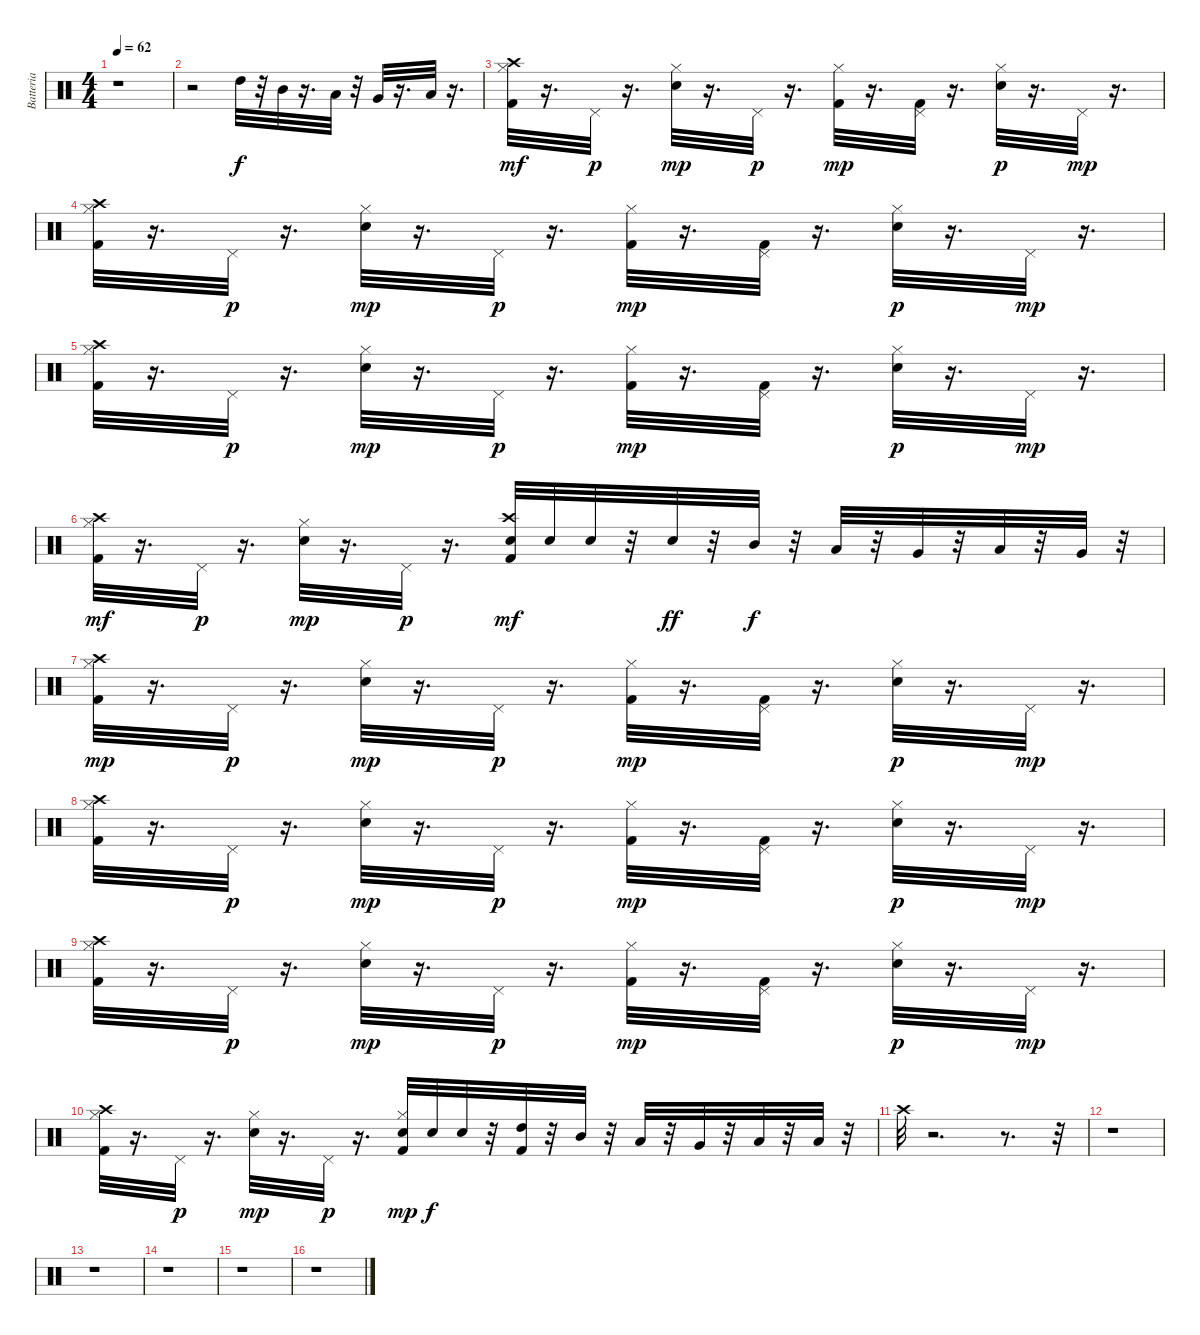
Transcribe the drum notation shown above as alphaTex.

\track ("Batteria" "Batteria") {instrument percussion}
\staff {score}
\articulation defaults
\ts (4 4)
\tempo 62
\clef neutral
\ks c
r.1{dy f} |
r.2 "High Tom (hit)".32 r.32 "Mid Tom (hit)".32 r.16{d} "Low Tom (hit)".32 r.32 "Very Low Tom (hit)".32 r.16{d} "Low Floor Tom (hit)".32 r.16{d} |
("Kick (hit) 2" "Hi-Hat (closed)" "Crash high (hit)").32{dy mf} r.16{d} "Pedal Hi-Hat (hit)".32{dy p} r.16{d} ("Snare (hit) 2" "Hi-Hat (closed)").32{dy mp} r.16{d} "Pedal Hi-Hat (hit)".32{dy p} r.16{d} ("Kick (hit) 2" "Hi-Hat (closed)").32{dy mp} r.16{d} ("Kick (hit) 2" "Pedal Hi-Hat (hit)").32 r.16{d} ("Snare (hit) 2" "Hi-Hat (closed)").32{dy p} r.16{d} "Pedal Hi-Hat (hit)".32{dy mp} r.16{d} |
("Kick (hit) 2" "Hi-Hat (closed)" "Crash high (hit)").32 r.16{d} "Pedal Hi-Hat (hit)".32{dy p} r.16{d} ("Snare (hit) 2" "Hi-Hat (closed)").32{dy mp} r.16{d} "Pedal Hi-Hat (hit)".32{dy p} r.16{d} ("Kick (hit) 2" "Hi-Hat (closed)").32{dy mp} r.16{d} ("Kick (hit) 2" "Pedal Hi-Hat (hit)").32 r.16{d} ("Snare (hit) 2" "Hi-Hat (closed)").32{dy p} r.16{d} "Pedal Hi-Hat (hit)".32{dy mp} r.16{d} |
("Kick (hit) 2" "Hi-Hat (closed)" "Crash high (hit)").32 r.16{d} "Pedal Hi-Hat (hit)".32{dy p} r.16{d} ("Snare (hit) 2" "Hi-Hat (closed)").32{dy mp} r.16{d} "Pedal Hi-Hat (hit)".32{dy p} r.16{d} ("Kick (hit) 2" "Hi-Hat (closed)").32{dy mp} r.16{d} ("Kick (hit) 2" "Pedal Hi-Hat (hit)").32 r.16{d} ("Snare (hit) 2" "Hi-Hat (closed)").32{dy p} r.16{d} "Pedal Hi-Hat (hit)".32{dy mp} r.16{d} |
("Kick (hit) 2" "Hi-Hat (closed)" "Crash high (hit)").32{dy mf} r.16{d} "Pedal Hi-Hat (hit)".32{dy p} r.16{d} ("Snare (hit) 2" "Hi-Hat (closed)").32{dy mp} r.16{d} "Pedal Hi-Hat (hit)".32{dy p} r.16{d} ("Snare (hit) 2" "Kick (hit) 2" "Crash high (hit)").32{dy mf} "Snare (hit) 2".32 "Snare (hit) 2".32 r.32 "Snare (hit) 2".32{dy ff} r.32 "Mid Tom (hit)".32{dy f} r.32 "Low Tom (hit)".32 r.32 "Very Low Tom (hit)".32 r.32 "Low Floor Tom (hit)".32 r.32 "Very Low Tom (hit)".32 r.32 |
("Kick (hit) 2" "Crash high (hit)" "Hi-Hat (closed)").32{dy mp} r.16{d} "Pedal Hi-Hat (hit)".32{dy p} r.16{d} ("Snare (hit) 2" "Hi-Hat (closed)").32{dy mp} r.16{d} "Pedal Hi-Hat (hit)".32{dy p} r.16{d} ("Kick (hit) 2" "Hi-Hat (closed)").32{dy mp} r.16{d} ("Kick (hit) 2" "Pedal Hi-Hat (hit)").32 r.16{d} ("Snare (hit) 2" "Hi-Hat (closed)").32{dy p} r.16{d} "Pedal Hi-Hat (hit)".32{dy mp} r.16{d} |
("Kick (hit) 2" "Crash high (hit)" "Hi-Hat (closed)").32 r.16{d} "Pedal Hi-Hat (hit)".32{dy p} r.16{d} ("Snare (hit) 2" "Hi-Hat (closed)").32{dy mp} r.16{d} "Pedal Hi-Hat (hit)".32{dy p} r.16{d} ("Kick (hit) 2" "Hi-Hat (closed)").32{dy mp} r.16{d} ("Kick (hit) 2" "Pedal Hi-Hat (hit)").32 r.16{d} ("Snare (hit) 2" "Hi-Hat (closed)").32{dy p} r.16{d} "Pedal Hi-Hat (hit)".32{dy mp} r.16{d} |
("Kick (hit) 2" "Crash high (hit)" "Hi-Hat (closed)").32 r.16{d} "Pedal Hi-Hat (hit)".32{dy p} r.16{d} ("Snare (hit) 2" "Hi-Hat (closed)").32{dy mp} r.16{d} "Pedal Hi-Hat (hit)".32{dy p} r.16{d} ("Kick (hit) 2" "Hi-Hat (closed)").32{dy mp} r.16{d} ("Kick (hit) 2" "Pedal Hi-Hat (hit)").32 r.16{d} ("Snare (hit) 2" "Hi-Hat (closed)").32{dy p} r.16{d} "Pedal Hi-Hat (hit)".32{dy mp} r.16{d} |
("Kick (hit) 2" "Crash high (hit)" "Hi-Hat (closed)").32 r.16{d} "Pedal Hi-Hat (hit)".32{dy p} r.16{d} ("Snare (hit) 2" "Hi-Hat (closed)").32{dy mp} r.16{d} "Pedal Hi-Hat (hit)".32{dy p} r.16{d} ("Snare (hit) 2" "Kick (hit) 2" "Hi-Hat (closed)").32{dy mp} "Snare (hit) 2".32{dy f} "Snare (hit) 2".32 r.32 ("High Tom (hit)" "Kick (hit) 2").32 r.32 "Mid Tom (hit)".32 r.32 "Low Tom (hit)".32 r.32 "Very Low Tom (hit)".32 r.32 "Low Tom (hit)".32 r.32 "Low Floor Tom (hit)".32 r.32 |
"Crash high (hit)".32 r.2{d} r.8{d} r.32 |
r.1 |
r.1 |
r.1 |
r.1 |
r.1
